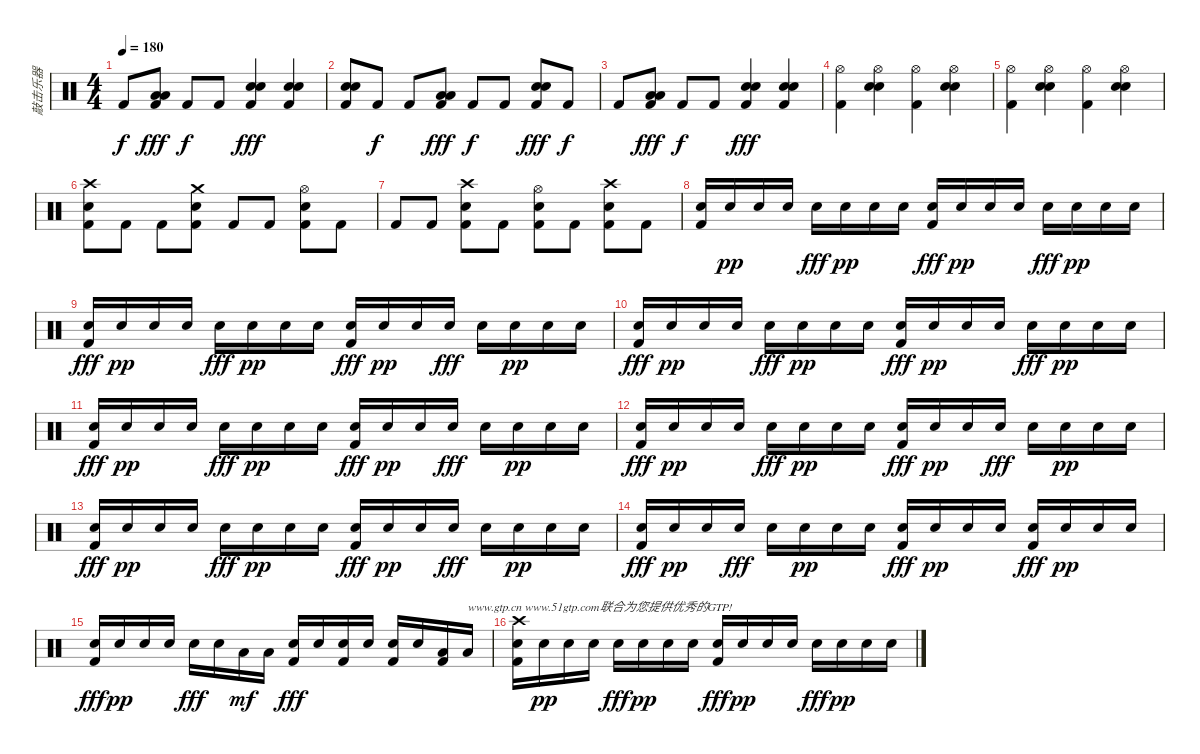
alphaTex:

\track ("敲击乐器" "敲击乐器") {instrument percussion}
\staff {score}
\articulation defaults
\ts (4 4)
\tempo 180
\clef neutral
\ks c "Kick (hit) 2".8{dy f}
("Low Tom (hit)" "Low Tom (hit)" "Kick (hit) 2").8{dy fff} "Kick (hit) 2".8{dy f} "Kick (hit) 2".8 ("Electric Snare (hit)" "Electric Snare (hit)" "Kick (hit) 2").4{dy fff} ("Electric Snare (hit)" "Electric Snare (hit)" "Kick (hit) 2").4 |
("Electric Snare (hit)" "Electric Snare (hit)" "Kick (hit) 2").8 "Kick (hit) 2".8{dy f} "Kick (hit) 2".8 ("Low Tom (hit)" "Low Tom (hit)" "Kick (hit) 2").8{dy fff} "Kick (hit) 2".8{dy f} "Kick (hit) 2".8 ("Electric Snare (hit)" "Electric Snare (hit)" "Kick (hit) 2").8{dy fff} "Kick (hit) 2".8{dy f} |
"Kick (hit) 2".8 ("Low Tom (hit)" "Low Tom (hit)" "Kick (hit) 2").8{dy fff} "Kick (hit) 2".8{dy f} "Kick (hit) 2".8 ("Electric Snare (hit)" "Electric Snare (hit)" "Kick (hit) 2").4{dy fff} ("Electric Snare (hit)" "Electric Snare (hit)" "Kick (hit) 2").4 |
("Hi-Hat (open)" "Kick (hit) 2").4 ("Hi-Hat (open)" "Electric Snare (hit)" "Electric Snare (hit)").4 ("Hi-Hat (open)" "Kick (hit) 2").4 ("Hi-Hat (open)" "Electric Snare (hit)" "Electric Snare (hit)").4 |
("Hi-Hat (open)" "Kick (hit) 2").4 ("Hi-Hat (open)" "Electric Snare (hit)" "Electric Snare (hit)").4 ("Hi-Hat (open)" "Kick (hit) 2").4 ("Hi-Hat (open)" "Electric Snare (hit)" "Electric Snare (hit)").4 |
("Crash high (hit)" "Electric Snare (hit)" "Kick (hit) 2").8 "Kick (hit) 2".8 "Kick (hit) 2".8 ("Crash medium (hit)" "Electric Snare (hit)" "Kick (hit) 2").8 "Kick (hit) 2".8 "Kick (hit) 2".8 ("Hi-Hat (open)" "Electric Snare (hit)" "Kick (hit) 2").8 "Kick (hit) 2".8 |
"Kick (hit) 2".8 "Kick (hit) 2".8 ("Crash high (hit)" "Electric Snare (hit)" "Kick (hit) 2").8 "Kick (hit) 2".8 ("Hi-Hat (open)" "Electric Snare (hit)" "Kick (hit) 2").8 "Kick (hit) 2".8 ("Crash high (hit)" "Electric Snare (hit)" "Kick (hit) 2").8 "Kick (hit) 2".8 |
("Electric Snare (hit)" "Kick (hit) 2").16 "Electric Snare (hit)".16{dy pp} "Electric Snare (hit)".16 "Electric Snare (hit)".16 "Electric Snare (hit)".16{dy fff} "Electric Snare (hit)".16{dy pp} "Electric Snare (hit)".16 "Electric Snare (hit)".16 ("Electric Snare (hit)" "Kick (hit) 2").16{dy fff} "Electric Snare (hit)".16{dy pp} "Electric Snare (hit)".16 "Electric Snare (hit)".16 "Electric Snare (hit)".16{dy fff} "Electric Snare (hit)".16{dy pp} "Electric Snare (hit)".16 "Electric Snare (hit)".16 |
("Electric Snare (hit)" "Kick (hit) 2").16{dy fff} "Electric Snare (hit)".16{dy pp} "Electric Snare (hit)".16 "Electric Snare (hit)".16 "Electric Snare (hit)".16{dy fff} "Electric Snare (hit)".16{dy pp} "Electric Snare (hit)".16 "Electric Snare (hit)".16 ("Electric Snare (hit)" "Kick (hit) 2").16{dy fff} "Electric Snare (hit)".16{dy pp} "Electric Snare (hit)".16 "Electric Snare (hit)".16{dy fff} "Electric Snare (hit)".16 "Electric Snare (hit)".16{dy pp} "Electric Snare (hit)".16 "Electric Snare (hit)".16 |
("Electric Snare (hit)" "Kick (hit) 2").16{dy fff} "Electric Snare (hit)".16{dy pp} "Electric Snare (hit)".16 "Electric Snare (hit)".16 "Electric Snare (hit)".16{dy fff} "Electric Snare (hit)".16{dy pp} "Electric Snare (hit)".16 "Electric Snare (hit)".16 ("Electric Snare (hit)" "Kick (hit) 2").16{dy fff} "Electric Snare (hit)".16{dy pp} "Electric Snare (hit)".16 "Electric Snare (hit)".16 "Electric Snare (hit)".16{dy fff} "Electric Snare (hit)".16{dy pp} "Electric Snare (hit)".16 "Electric Snare (hit)".16 |
("Electric Snare (hit)" "Kick (hit) 2").16{dy fff} "Electric Snare (hit)".16{dy pp} "Electric Snare (hit)".16 "Electric Snare (hit)".16 "Electric Snare (hit)".16{dy fff} "Electric Snare (hit)".16{dy pp} "Electric Snare (hit)".16 "Electric Snare (hit)".16 ("Electric Snare (hit)" "Kick (hit) 2").16{dy fff} "Electric Snare (hit)".16{dy pp} "Electric Snare (hit)".16 "Electric Snare (hit)".16{dy fff} "Electric Snare (hit)".16 "Electric Snare (hit)".16{dy pp} "Electric Snare (hit)".16 "Electric Snare (hit)".16 |
("Electric Snare (hit)" "Kick (hit) 2").16{dy fff} "Electric Snare (hit)".16{dy pp} "Electric Snare (hit)".16 "Electric Snare (hit)".16 "Electric Snare (hit)".16{dy fff} "Electric Snare (hit)".16{dy pp} "Electric Snare (hit)".16 "Electric Snare (hit)".16 ("Electric Snare (hit)" "Kick (hit) 2").16{dy fff} "Electric Snare (hit)".16{dy pp} "Electric Snare (hit)".16 "Electric Snare (hit)".16{dy fff} "Electric Snare (hit)".16 "Electric Snare (hit)".16{dy pp} "Electric Snare (hit)".16 "Electric Snare (hit)".16 |
("Electric Snare (hit)" "Kick (hit) 2").16{dy fff} "Electric Snare (hit)".16{dy pp} "Electric Snare (hit)".16 "Electric Snare (hit)".16 "Electric Snare (hit)".16{dy fff} "Electric Snare (hit)".16{dy pp} "Electric Snare (hit)".16 "Electric Snare (hit)".16 ("Electric Snare (hit)" "Kick (hit) 2").16{dy fff} "Electric Snare (hit)".16{dy pp} "Electric Snare (hit)".16 "Electric Snare (hit)".16{dy fff} "Electric Snare (hit)".16 "Electric Snare (hit)".16{dy pp} "Electric Snare (hit)".16 "Electric Snare (hit)".16 |
("Electric Snare (hit)" "Kick (hit) 2").16{dy fff} "Electric Snare (hit)".16{dy pp} "Electric Snare (hit)".16 "Electric Snare (hit)".16{dy fff} "Electric Snare (hit)".16 "Electric Snare (hit)".16{dy pp} "Electric Snare (hit)".16 "Electric Snare (hit)".16 ("Electric Snare (hit)" "Kick (hit) 2").16{dy fff} "Electric Snare (hit)".16{dy pp} "Electric Snare (hit)".16 "Electric Snare (hit)".16 ("Electric Snare (hit)" "Kick (hit) 2").16{dy fff} "Electric Snare (hit)".16{dy pp} "Electric Snare (hit)".16 "Electric Snare (hit)".16 |
("Electric Snare (hit)" "Kick (hit) 2").16{dy fff} "Electric Snare (hit)".16{dy pp} "Electric Snare (hit)".16 "Electric Snare (hit)".16 "Electric Snare (hit)".16{dy fff} "Electric Snare (hit)".16 "Low Tom (hit)".16{dy mf} "Low Tom (hit)".16 ("Electric Snare (hit)" "Kick (hit) 2").16{dy fff} "Electric Snare (hit)".16 ("Electric Snare (hit)" "Kick (hit) 2").16 "Electric Snare (hit)".16 ("Electric Snare (hit)" "Kick (hit) 2").16 "Electric Snare (hit)".16 ("Low Tom (hit)" "Kick (hit) 2").16 "Low Tom (hit)".16{txt "www.gtp.cn www.51gtp.com联合为您提供优秀的GTP!"} |
("Crash high (hit)" "Electric Snare (hit)" "Kick (hit) 2").16 "Electric Snare (hit)".16{dy pp} "Electric Snare (hit)".16 "Electric Snare (hit)".16 "Electric Snare (hit)".16{dy fff} "Electric Snare (hit)".16{dy pp} "Electric Snare (hit)".16 "Electric Snare (hit)".16 ("Electric Snare (hit)" "Kick (hit) 2").16{dy fff} "Electric Snare (hit)".16{dy pp} "Electric Snare (hit)".16 "Electric Snare (hit)".16 "Electric Snare (hit)".16{dy fff} "Electric Snare (hit)".16{dy pp} "Electric Snare (hit)".16 "Electric Snare (hit)".16
